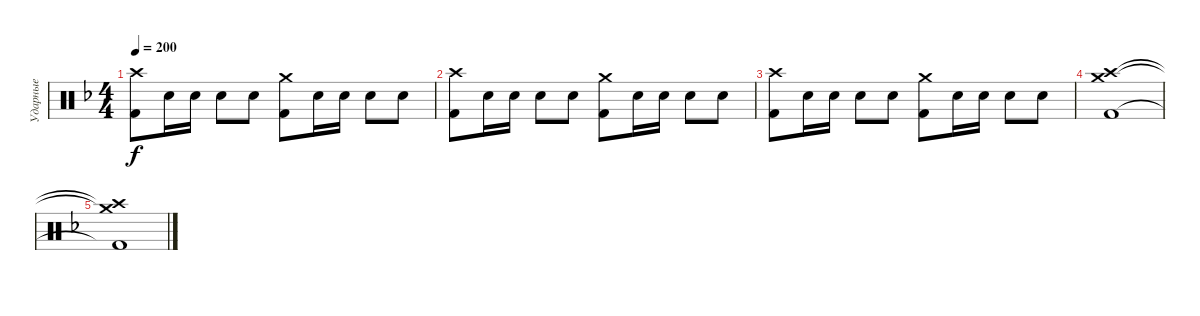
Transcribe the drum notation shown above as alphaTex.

\track ("Ударные" "Ударные") {instrument percussion}
\staff {score}
\articulation defaults
\ts (4 4)
\tempo 200
\clef neutral
\ks dminor
("Kick (hit) 2" "Crash high (hit)").8{dy f} "Electric Snare (hit)".16 "Electric Snare (hit)".16 "Electric Snare (hit)".8 "Electric Snare (hit)".8 ("Kick (hit) 2" "Crash medium (hit)").8 "Electric Snare (hit)".16 "Electric Snare (hit)".16 "Electric Snare (hit)".8 "Electric Snare (hit)".8 |
("Kick (hit) 2" "Crash high (hit)").8 "Electric Snare (hit)".16 "Electric Snare (hit)".16 "Electric Snare (hit)".8 "Electric Snare (hit)".8 ("Kick (hit) 2" "Crash medium (hit)").8 "Electric Snare (hit)".16 "Electric Snare (hit)".16 "Electric Snare (hit)".8 "Electric Snare (hit)".8 |
("Kick (hit) 2" "Crash high (hit)").8 "Electric Snare (hit)".16 "Electric Snare (hit)".16 "Electric Snare (hit)".8 "Electric Snare (hit)".8 ("Kick (hit) 2" "Crash medium (hit)").8 "Electric Snare (hit)".16 "Electric Snare (hit)".16 "Electric Snare (hit)".8 "Electric Snare (hit)".8 |
("Kick (hit) 2" "Crash high (hit)" "Crash medium (hit)").1 |
("Kick (hit) 2"{t} "Crash high (hit)"{t} "Crash medium (hit)"{t}).1
